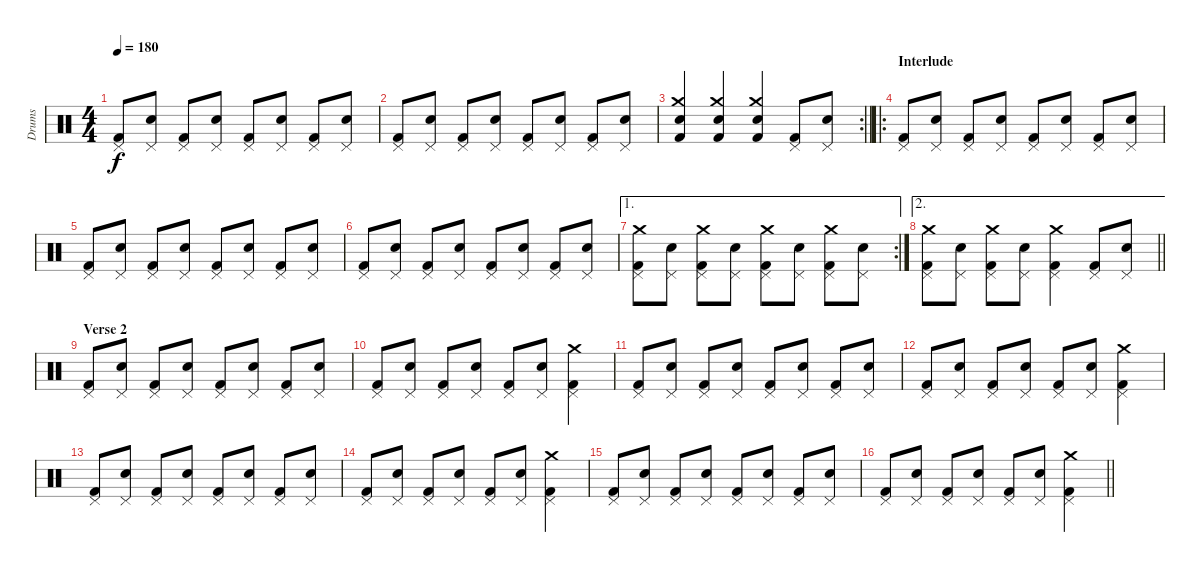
\track ("Drums" "Drums") {instrument percussion}
\staff {score}
\articulation defaults
\ts (4 4)
\tempo 180
\clef neutral
\ks c
("Kick (hit) 2" "Pedal Hi-Hat (hit)").8{dy f} ("Snare (hit) 2" "Pedal Hi-Hat (hit)").8 ("Kick (hit) 2" "Pedal Hi-Hat (hit)").8 ("Snare (hit) 2" "Pedal Hi-Hat (hit)").8 ("Kick (hit) 2" "Pedal Hi-Hat (hit)").8 ("Snare (hit) 2" "Pedal Hi-Hat (hit)").8 ("Kick (hit) 2" "Pedal Hi-Hat (hit)").8 ("Snare (hit) 2" "Pedal Hi-Hat (hit)").8 |
("Kick (hit) 2" "Pedal Hi-Hat (hit)").8 ("Snare (hit) 2" "Pedal Hi-Hat (hit)").8 ("Kick (hit) 2" "Pedal Hi-Hat (hit)").8 ("Snare (hit) 2" "Pedal Hi-Hat (hit)").8 ("Kick (hit) 2" "Pedal Hi-Hat (hit)").8 ("Snare (hit) 2" "Pedal Hi-Hat (hit)").8 ("Kick (hit) 2" "Pedal Hi-Hat (hit)").8 ("Snare (hit) 2" "Pedal Hi-Hat (hit)").8 |
\rc 2
\barLineRight lightlight
("Crash medium (hit)" "Electric Snare (hit)" "Kick (hit) 2").4 ("Crash medium (hit)" "Electric Snare (hit)" "Kick (hit) 2").4 ("Crash medium (hit)" "Electric Snare (hit)" "Kick (hit) 2").4 ("Kick (hit) 2" "Pedal Hi-Hat (hit)").8 ("Snare (hit) 2" "Pedal Hi-Hat (hit)").8 |
\ro
\section ("" "Interlude")
("Kick (hit) 2" "Pedal Hi-Hat (hit)").8 ("Snare (hit) 2" "Pedal Hi-Hat (hit)").8 ("Kick (hit) 2" "Pedal Hi-Hat (hit)").8 ("Snare (hit) 2" "Pedal Hi-Hat (hit)").8 ("Kick (hit) 2" "Pedal Hi-Hat (hit)").8 ("Snare (hit) 2" "Pedal Hi-Hat (hit)").8 ("Kick (hit) 2" "Pedal Hi-Hat (hit)").8 ("Snare (hit) 2" "Pedal Hi-Hat (hit)").8 |
("Kick (hit) 2" "Pedal Hi-Hat (hit)").8 ("Snare (hit) 2" "Pedal Hi-Hat (hit)").8 ("Kick (hit) 2" "Pedal Hi-Hat (hit)").8 ("Snare (hit) 2" "Pedal Hi-Hat (hit)").8 ("Kick (hit) 2" "Pedal Hi-Hat (hit)").8 ("Snare (hit) 2" "Pedal Hi-Hat (hit)").8 ("Kick (hit) 2" "Pedal Hi-Hat (hit)").8 ("Snare (hit) 2" "Pedal Hi-Hat (hit)").8 |
("Kick (hit) 2" "Pedal Hi-Hat (hit)").8 ("Snare (hit) 2" "Pedal Hi-Hat (hit)").8 ("Kick (hit) 2" "Pedal Hi-Hat (hit)").8 ("Snare (hit) 2" "Pedal Hi-Hat (hit)").8 ("Kick (hit) 2" "Pedal Hi-Hat (hit)").8 ("Snare (hit) 2" "Pedal Hi-Hat (hit)").8 ("Kick (hit) 2" "Pedal Hi-Hat (hit)").8 ("Snare (hit) 2" "Pedal Hi-Hat (hit)").8 |
\ae 1
\rc 2
("Crash medium (hit)" "Pedal Hi-Hat (hit)" "Kick (hit) 2").8 ("Snare (hit) 2" "Pedal Hi-Hat (hit)").8 ("Crash medium (hit)" "Pedal Hi-Hat (hit)" "Kick (hit) 2").8 ("Snare (hit) 2" "Pedal Hi-Hat (hit)").8 ("Crash medium (hit)" "Pedal Hi-Hat (hit)" "Kick (hit) 2").8 ("Snare (hit) 2" "Pedal Hi-Hat (hit)").8 ("Crash medium (hit)" "Pedal Hi-Hat (hit)" "Kick (hit) 2").8 ("Snare (hit) 2" "Pedal Hi-Hat (hit)").8 |
\ae 2
\barLineRight lightlight
("Crash medium (hit)" "Pedal Hi-Hat (hit)" "Kick (hit) 2").8 ("Snare (hit) 2" "Pedal Hi-Hat (hit)").8 ("Crash medium (hit)" "Pedal Hi-Hat (hit)" "Kick (hit) 2").8 ("Snare (hit) 2" "Pedal Hi-Hat (hit)").8 ("Crash medium (hit)" "Pedal Hi-Hat (hit)" "Kick (hit) 2").4 ("Kick (hit) 2" "Pedal Hi-Hat (hit)").8 ("Snare (hit) 2" "Pedal Hi-Hat (hit)").8 |
\section ("" "Verse 2")
("Kick (hit) 2" "Pedal Hi-Hat (hit)").8 ("Snare (hit) 2" "Pedal Hi-Hat (hit)").8 ("Kick (hit) 2" "Pedal Hi-Hat (hit)").8 ("Snare (hit) 2" "Pedal Hi-Hat (hit)").8 ("Kick (hit) 2" "Pedal Hi-Hat (hit)").8 ("Snare (hit) 2" "Pedal Hi-Hat (hit)").8 ("Kick (hit) 2" "Pedal Hi-Hat (hit)").8 ("Snare (hit) 2" "Pedal Hi-Hat (hit)").8 |
("Kick (hit) 2" "Pedal Hi-Hat (hit)").8 ("Snare (hit) 2" "Pedal Hi-Hat (hit)").8 ("Kick (hit) 2" "Pedal Hi-Hat (hit)").8 ("Snare (hit) 2" "Pedal Hi-Hat (hit)").8 ("Kick (hit) 2" "Pedal Hi-Hat (hit)").8 ("Snare (hit) 2" "Pedal Hi-Hat (hit)").8 ("Kick (hit) 2" "Pedal Hi-Hat (hit)" "Crash medium (hit)").4 |
("Kick (hit) 2" "Pedal Hi-Hat (hit)").8 ("Snare (hit) 2" "Pedal Hi-Hat (hit)").8 ("Kick (hit) 2" "Pedal Hi-Hat (hit)").8 ("Snare (hit) 2" "Pedal Hi-Hat (hit)").8 ("Kick (hit) 2" "Pedal Hi-Hat (hit)").8 ("Snare (hit) 2" "Pedal Hi-Hat (hit)").8 ("Kick (hit) 2" "Pedal Hi-Hat (hit)").8 ("Snare (hit) 2" "Pedal Hi-Hat (hit)").8 |
("Kick (hit) 2" "Pedal Hi-Hat (hit)").8 ("Snare (hit) 2" "Pedal Hi-Hat (hit)").8 ("Kick (hit) 2" "Pedal Hi-Hat (hit)").8 ("Snare (hit) 2" "Pedal Hi-Hat (hit)").8 ("Kick (hit) 2" "Pedal Hi-Hat (hit)").8 ("Snare (hit) 2" "Pedal Hi-Hat (hit)").8 ("Kick (hit) 2" "Pedal Hi-Hat (hit)" "Crash medium (hit)").4 |
("Kick (hit) 2" "Pedal Hi-Hat (hit)").8 ("Snare (hit) 2" "Pedal Hi-Hat (hit)").8 ("Kick (hit) 2" "Pedal Hi-Hat (hit)").8 ("Snare (hit) 2" "Pedal Hi-Hat (hit)").8 ("Kick (hit) 2" "Pedal Hi-Hat (hit)").8 ("Snare (hit) 2" "Pedal Hi-Hat (hit)").8 ("Kick (hit) 2" "Pedal Hi-Hat (hit)").8 ("Snare (hit) 2" "Pedal Hi-Hat (hit)").8 |
("Kick (hit) 2" "Pedal Hi-Hat (hit)").8 ("Snare (hit) 2" "Pedal Hi-Hat (hit)").8 ("Kick (hit) 2" "Pedal Hi-Hat (hit)").8 ("Snare (hit) 2" "Pedal Hi-Hat (hit)").8 ("Kick (hit) 2" "Pedal Hi-Hat (hit)").8 ("Snare (hit) 2" "Pedal Hi-Hat (hit)").8 ("Kick (hit) 2" "Pedal Hi-Hat (hit)" "Crash medium (hit)").4 |
("Kick (hit) 2" "Pedal Hi-Hat (hit)").8 ("Snare (hit) 2" "Pedal Hi-Hat (hit)").8 ("Kick (hit) 2" "Pedal Hi-Hat (hit)").8 ("Snare (hit) 2" "Pedal Hi-Hat (hit)").8 ("Kick (hit) 2" "Pedal Hi-Hat (hit)").8 ("Snare (hit) 2" "Pedal Hi-Hat (hit)").8 ("Kick (hit) 2" "Pedal Hi-Hat (hit)").8 ("Snare (hit) 2" "Pedal Hi-Hat (hit)").8 |
\barLineRight lightlight
("Kick (hit) 2" "Pedal Hi-Hat (hit)").8 ("Snare (hit) 2" "Pedal Hi-Hat (hit)").8 ("Kick (hit) 2" "Pedal Hi-Hat (hit)").8 ("Snare (hit) 2" "Pedal Hi-Hat (hit)").8 ("Kick (hit) 2" "Pedal Hi-Hat (hit)").8 ("Snare (hit) 2" "Pedal Hi-Hat (hit)").8 ("Kick (hit) 2" "Pedal Hi-Hat (hit)" "Crash medium (hit)").4
